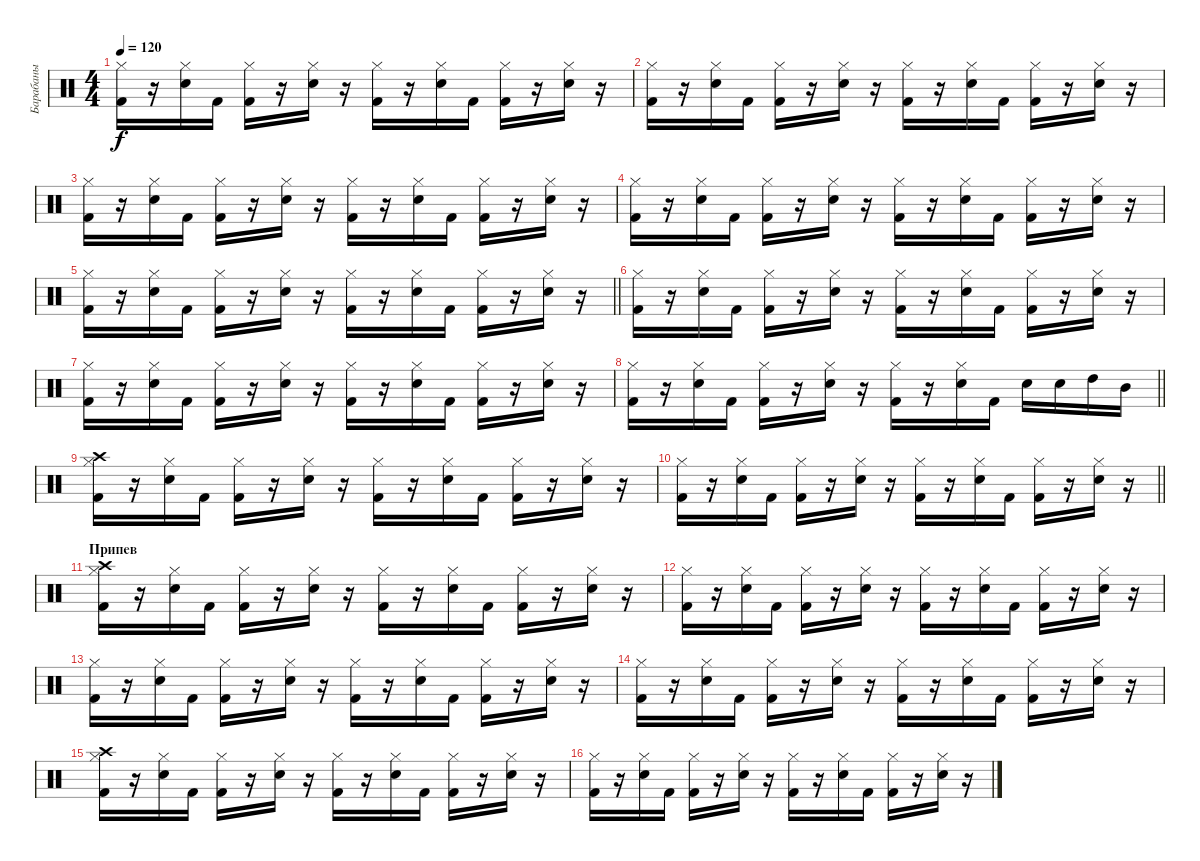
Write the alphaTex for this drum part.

\track ("Барабаны" "Барабаны") {instrument percussion}
\staff {score}
\articulation defaults
\ts (4 4)
\tempo 120
\clef neutral
\ks c
("Hi-Hat (closed)" "Kick (hit) 2").16{dy f} r.16 ("Hi-Hat (closed)" "Electric Snare (hit)").16 "Kick (hit) 2".16 ("Hi-Hat (closed)" "Kick (hit) 2").16 r.16 ("Hi-Hat (closed)" "Electric Snare (hit)").16 r.16 ("Hi-Hat (closed)" "Kick (hit) 2").16 r.16 ("Hi-Hat (closed)" "Electric Snare (hit)").16 "Kick (hit) 2".16 ("Hi-Hat (closed)" "Kick (hit) 2").16 r.16 ("Hi-Hat (closed)" "Electric Snare (hit)").16 r.16 |
("Hi-Hat (closed)" "Kick (hit) 2").16 r.16 ("Hi-Hat (closed)" "Electric Snare (hit)").16 "Kick (hit) 2".16 ("Hi-Hat (closed)" "Kick (hit) 2").16 r.16 ("Hi-Hat (closed)" "Electric Snare (hit)").16 r.16 ("Hi-Hat (closed)" "Kick (hit) 2").16 r.16 ("Hi-Hat (closed)" "Electric Snare (hit)").16 "Kick (hit) 2".16 ("Hi-Hat (closed)" "Kick (hit) 2").16 r.16 ("Hi-Hat (closed)" "Electric Snare (hit)").16 r.16 |
("Hi-Hat (closed)" "Kick (hit) 2").16 r.16 ("Hi-Hat (closed)" "Electric Snare (hit)").16 "Kick (hit) 2".16 ("Hi-Hat (closed)" "Kick (hit) 2").16 r.16 ("Hi-Hat (closed)" "Electric Snare (hit)").16 r.16 ("Hi-Hat (closed)" "Kick (hit) 2").16 r.16 ("Hi-Hat (closed)" "Electric Snare (hit)").16 "Kick (hit) 2".16 ("Hi-Hat (closed)" "Kick (hit) 2").16 r.16 ("Hi-Hat (closed)" "Electric Snare (hit)").16 r.16 |
("Hi-Hat (closed)" "Kick (hit) 2").16 r.16 ("Hi-Hat (closed)" "Electric Snare (hit)").16 "Kick (hit) 2".16 ("Hi-Hat (closed)" "Kick (hit) 2").16 r.16 ("Hi-Hat (closed)" "Electric Snare (hit)").16 r.16 ("Hi-Hat (closed)" "Kick (hit) 2").16 r.16 ("Hi-Hat (closed)" "Electric Snare (hit)").16 "Kick (hit) 2".16 ("Hi-Hat (closed)" "Kick (hit) 2").16 r.16 ("Hi-Hat (closed)" "Electric Snare (hit)").16 r.16 |
\barLineRight lightlight
("Hi-Hat (closed)" "Kick (hit) 2").16 r.16 ("Hi-Hat (closed)" "Electric Snare (hit)").16 "Kick (hit) 2".16 ("Hi-Hat (closed)" "Kick (hit) 2").16 r.16 ("Hi-Hat (closed)" "Electric Snare (hit)").16 r.16 ("Hi-Hat (closed)" "Kick (hit) 2").16 r.16 ("Hi-Hat (closed)" "Electric Snare (hit)").16 "Kick (hit) 2".16 ("Hi-Hat (closed)" "Kick (hit) 2").16 r.16 ("Hi-Hat (closed)" "Electric Snare (hit)").16 r.16 |
("Hi-Hat (closed)" "Kick (hit) 2").16 r.16 ("Hi-Hat (closed)" "Electric Snare (hit)").16 "Kick (hit) 2".16 ("Hi-Hat (closed)" "Kick (hit) 2").16 r.16 ("Hi-Hat (closed)" "Electric Snare (hit)").16 r.16 ("Hi-Hat (closed)" "Kick (hit) 2").16 r.16 ("Hi-Hat (closed)" "Electric Snare (hit)").16 "Kick (hit) 2".16 ("Hi-Hat (closed)" "Kick (hit) 2").16 r.16 ("Hi-Hat (closed)" "Electric Snare (hit)").16 r.16 |
("Hi-Hat (closed)" "Kick (hit) 2").16 r.16 ("Hi-Hat (closed)" "Electric Snare (hit)").16 "Kick (hit) 2".16 ("Hi-Hat (closed)" "Kick (hit) 2").16 r.16 ("Hi-Hat (closed)" "Electric Snare (hit)").16 r.16 ("Hi-Hat (closed)" "Kick (hit) 2").16 r.16 ("Hi-Hat (closed)" "Electric Snare (hit)").16 "Kick (hit) 2".16 ("Hi-Hat (closed)" "Kick (hit) 2").16 r.16 ("Hi-Hat (closed)" "Electric Snare (hit)").16 r.16 |
\barLineRight lightlight
("Hi-Hat (closed)" "Kick (hit) 2").16 r.16 ("Hi-Hat (closed)" "Electric Snare (hit)").16 "Kick (hit) 2".16 ("Hi-Hat (closed)" "Kick (hit) 2").16 r.16 ("Hi-Hat (closed)" "Electric Snare (hit)").16 r.16 ("Hi-Hat (closed)" "Kick (hit) 2").16 r.16 ("Hi-Hat (closed)" "Electric Snare (hit)").16 "Kick (hit) 2".16 "Electric Snare (hit)".16 "Electric Snare (hit)".16 "High Tom (hit)".16 "Mid Tom (hit)".16 |
\section ("" "")
("Hi-Hat (closed)" "Kick (hit) 2" "Crash high (hit)").16 r.16 ("Hi-Hat (closed)" "Electric Snare (hit)").16 "Kick (hit) 2".16 ("Hi-Hat (closed)" "Kick (hit) 2").16 r.16 ("Hi-Hat (closed)" "Electric Snare (hit)").16 r.16 ("Hi-Hat (closed)" "Kick (hit) 2").16 r.16 ("Hi-Hat (closed)" "Electric Snare (hit)").16 "Kick (hit) 2".16 ("Hi-Hat (closed)" "Kick (hit) 2").16 r.16 ("Hi-Hat (closed)" "Electric Snare (hit)").16 r.16 |
\barLineRight lightlight
("Hi-Hat (closed)" "Kick (hit) 2").16 r.16 ("Hi-Hat (closed)" "Electric Snare (hit)").16 "Kick (hit) 2".16 ("Hi-Hat (closed)" "Kick (hit) 2").16 r.16 ("Hi-Hat (closed)" "Electric Snare (hit)").16 r.16 ("Hi-Hat (closed)" "Kick (hit) 2").16 r.16 ("Hi-Hat (closed)" "Electric Snare (hit)").16 "Kick (hit) 2".16 ("Hi-Hat (closed)" "Kick (hit) 2").16 r.16 ("Hi-Hat (closed)" "Electric Snare (hit)").16 r.16 |
\section ("" "Припев")
("Hi-Hat (closed)" "Kick (hit) 2" "Crash high (hit)").16 r.16 ("Hi-Hat (closed)" "Electric Snare (hit)").16 "Kick (hit) 2".16 ("Hi-Hat (closed)" "Kick (hit) 2").16 r.16 ("Hi-Hat (closed)" "Electric Snare (hit)").16 r.16 ("Hi-Hat (closed)" "Kick (hit) 2").16 r.16 ("Hi-Hat (closed)" "Electric Snare (hit)").16 "Kick (hit) 2".16 ("Hi-Hat (closed)" "Kick (hit) 2").16 r.16 ("Hi-Hat (closed)" "Electric Snare (hit)").16 r.16 |
("Hi-Hat (closed)" "Kick (hit) 2").16 r.16 ("Hi-Hat (closed)" "Electric Snare (hit)").16 "Kick (hit) 2".16 ("Hi-Hat (closed)" "Kick (hit) 2").16 r.16 ("Hi-Hat (closed)" "Electric Snare (hit)").16 r.16 ("Hi-Hat (closed)" "Kick (hit) 2").16 r.16 ("Hi-Hat (closed)" "Electric Snare (hit)").16 "Kick (hit) 2".16 ("Hi-Hat (closed)" "Kick (hit) 2").16 r.16 ("Hi-Hat (closed)" "Electric Snare (hit)").16 r.16 |
("Hi-Hat (closed)" "Kick (hit) 2").16 r.16 ("Hi-Hat (closed)" "Electric Snare (hit)").16 "Kick (hit) 2".16 ("Hi-Hat (closed)" "Kick (hit) 2").16 r.16 ("Hi-Hat (closed)" "Electric Snare (hit)").16 r.16 ("Hi-Hat (closed)" "Kick (hit) 2").16 r.16 ("Hi-Hat (closed)" "Electric Snare (hit)").16 "Kick (hit) 2".16 ("Hi-Hat (closed)" "Kick (hit) 2").16 r.16 ("Hi-Hat (closed)" "Electric Snare (hit)").16 r.16 |
("Hi-Hat (closed)" "Kick (hit) 2").16 r.16 ("Hi-Hat (closed)" "Electric Snare (hit)").16 "Kick (hit) 2".16 ("Hi-Hat (closed)" "Kick (hit) 2").16 r.16 ("Hi-Hat (closed)" "Electric Snare (hit)").16 r.16 ("Hi-Hat (closed)" "Kick (hit) 2").16 r.16 ("Hi-Hat (closed)" "Electric Snare (hit)").16 "Kick (hit) 2".16 ("Hi-Hat (closed)" "Kick (hit) 2").16 r.16 ("Hi-Hat (closed)" "Electric Snare (hit)").16 r.16 |
("Hi-Hat (closed)" "Kick (hit) 2" "Crash high (hit)").16 r.16 ("Hi-Hat (closed)" "Electric Snare (hit)").16 "Kick (hit) 2".16 ("Hi-Hat (closed)" "Kick (hit) 2").16 r.16 ("Hi-Hat (closed)" "Electric Snare (hit)").16 r.16 ("Hi-Hat (closed)" "Kick (hit) 2").16 r.16 ("Hi-Hat (closed)" "Electric Snare (hit)").16 "Kick (hit) 2".16 ("Hi-Hat (closed)" "Kick (hit) 2").16 r.16 ("Hi-Hat (closed)" "Electric Snare (hit)").16 r.16 |
("Hi-Hat (closed)" "Kick (hit) 2").16 r.16 ("Hi-Hat (closed)" "Electric Snare (hit)").16 "Kick (hit) 2".16 ("Hi-Hat (closed)" "Kick (hit) 2").16 r.16 ("Hi-Hat (closed)" "Electric Snare (hit)").16 r.16 ("Hi-Hat (closed)" "Kick (hit) 2").16 r.16 ("Hi-Hat (closed)" "Electric Snare (hit)").16 "Kick (hit) 2".16 ("Hi-Hat (closed)" "Kick (hit) 2").16 r.16 ("Hi-Hat (closed)" "Electric Snare (hit)").16 r.16
